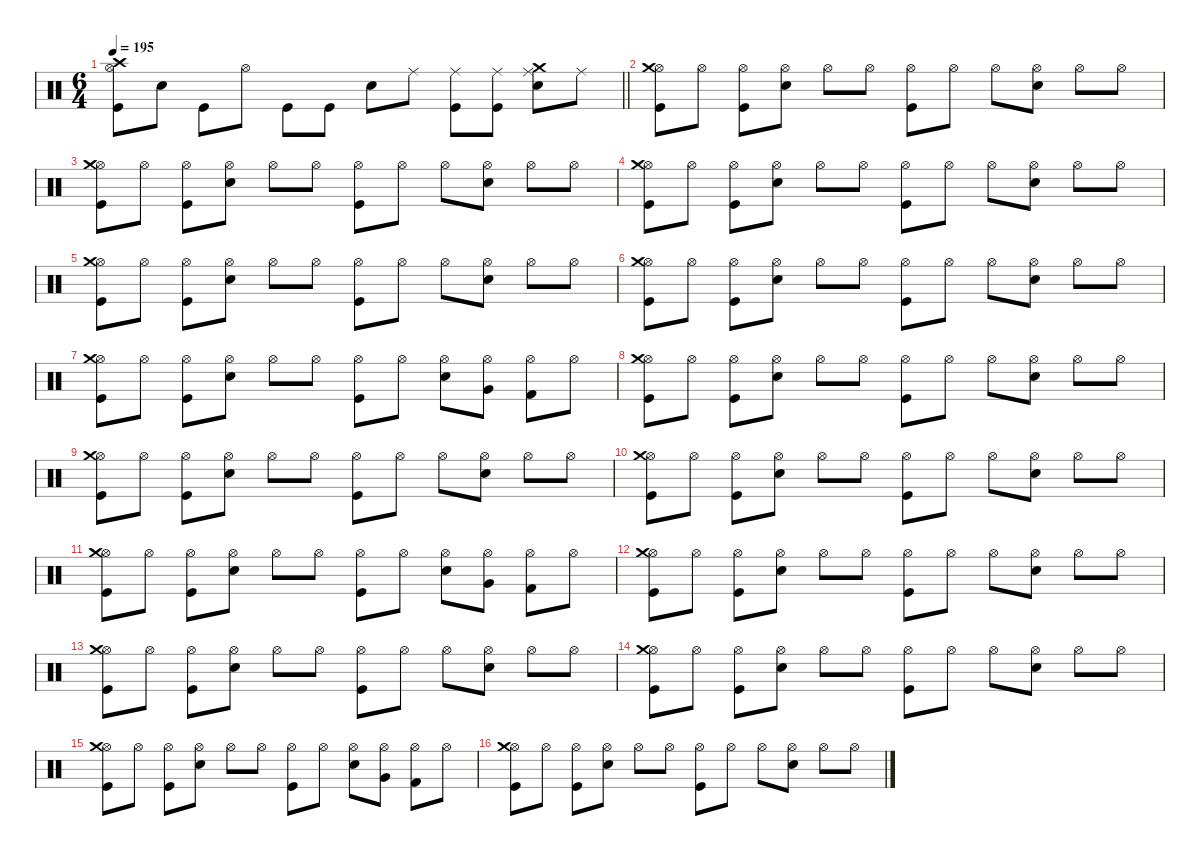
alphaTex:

\defaultSystemsLayout 4
\hideDynamics
\bracketExtendMode nobrackets
\singleTrackTrackNamePolicy hidden
\multiTrackTrackNamePolicy hidden
\firstSystemTrackNameMode fullname
\firstSystemTrackNameOrientation horizontal
\otherSystemsTrackNameOrientation horizontal
\track ("Percussion" "drm.") {defaultSystemsLayout 4 instrument percussion}
\staff {score}
\articulation defaults
\ts (6 4)
\tempo 195
\clef neutral
\barLineRight lightlight
\ks c
("Crash high (hit)" "Hi-Hat (open)" "Kick (hit)").8{dy f beam Down} "Snare (hit) 2".8{beam Down} "Kick (hit)".8{beam Down} "Hi-Hat (open)".8{beam Down} "Kick (hit)".8{beam Down} "Kick (hit)".8{beam Down} "Snare (hit) 2".8{beam Down} "Ride (middle)".8{beam Down} ("Ride (middle)" "Kick (hit)").8{beam Down} ("Ride (middle)" "Kick (hit)").8{beam Down} ("Crash medium (hit)" "Ride (middle)" "Snare (hit) 2").8{beam Down} "Ride (middle)".8{beam Down} |
("Hi-Hat (open)" "Crash medium (hit)" "Kick (hit)").8{beam Down} "Hi-Hat (open)".8{beam Down} ("Hi-Hat (open)" "Kick (hit)").8{beam Down} ("Hi-Hat (open)" "Snare (hit) 2").8{beam Down} "Hi-Hat (open)".8{beam Down} "Hi-Hat (open)".8{beam Down} ("Hi-Hat (open)" "Kick (hit)").8{beam Down} "Hi-Hat (open)".8{beam Down} "Hi-Hat (open)".8{beam Down} ("Hi-Hat (open)" "Snare (hit) 2").8{beam Down} "Hi-Hat (open)".8{beam Down} "Hi-Hat (open)".8{beam Down} |
("Hi-Hat (open)" "Crash medium (hit)" "Kick (hit)").8{beam Down} "Hi-Hat (open)".8{beam Down} ("Hi-Hat (open)" "Kick (hit)").8{beam Down} ("Hi-Hat (open)" "Snare (hit) 2").8{beam Down} "Hi-Hat (open)".8{beam Down} "Hi-Hat (open)".8{beam Down} ("Hi-Hat (open)" "Kick (hit)").8{beam Down} "Hi-Hat (open)".8{beam Down} "Hi-Hat (open)".8{beam Down} ("Hi-Hat (open)" "Snare (hit) 2").8{beam Down} "Hi-Hat (open)".8{beam Down} "Hi-Hat (open)".8{beam Down} |
("Hi-Hat (open)" "Crash medium (hit)" "Kick (hit)").8{beam Down} "Hi-Hat (open)".8{beam Down} ("Hi-Hat (open)" "Kick (hit)").8{beam Down} ("Hi-Hat (open)" "Snare (hit) 2").8{beam Down} "Hi-Hat (open)".8{beam Down} "Hi-Hat (open)".8{beam Down} ("Hi-Hat (open)" "Kick (hit)").8{beam Down} "Hi-Hat (open)".8{beam Down} "Hi-Hat (open)".8{beam Down} ("Hi-Hat (open)" "Snare (hit) 2").8{beam Down} "Hi-Hat (open)".8{beam Down} "Hi-Hat (open)".8{beam Down} |
("Hi-Hat (open)" "Crash medium (hit)" "Kick (hit)").8{beam Down} "Hi-Hat (open)".8{beam Down} ("Hi-Hat (open)" "Kick (hit)").8{beam Down} ("Hi-Hat (open)" "Snare (hit) 2").8{beam Down} "Hi-Hat (open)".8{beam Down} "Hi-Hat (open)".8{beam Down} ("Hi-Hat (open)" "Kick (hit)").8{beam Down} "Hi-Hat (open)".8{beam Down} "Hi-Hat (open)".8{beam Down} ("Hi-Hat (open)" "Snare (hit) 2").8{beam Down} "Hi-Hat (open)".8{beam Down} "Hi-Hat (open)".8{beam Down} |
("Hi-Hat (open)" "Crash medium (hit)" "Kick (hit)").8{beam Down} "Hi-Hat (open)".8{beam Down} ("Hi-Hat (open)" "Kick (hit)").8{beam Down} ("Hi-Hat (open)" "Snare (hit) 2").8{beam Down} "Hi-Hat (open)".8{beam Down} "Hi-Hat (open)".8{beam Down} ("Hi-Hat (open)" "Kick (hit)").8{beam Down} "Hi-Hat (open)".8{beam Down} "Hi-Hat (open)".8{beam Down} ("Hi-Hat (open)" "Snare (hit) 2").8{beam Down} "Hi-Hat (open)".8{beam Down} "Hi-Hat (open)".8{beam Down} |
("Hi-Hat (open)" "Crash medium (hit)" "Kick (hit)").8{beam Down} "Hi-Hat (open)".8{beam Down} ("Hi-Hat (open)" "Kick (hit)").8{beam Down} ("Hi-Hat (open)" "Snare (hit) 2").8{beam Down} "Hi-Hat (open)".8{beam Down} "Hi-Hat (open)".8{beam Down} ("Hi-Hat (open)" "Kick (hit)").8{beam Down} "Hi-Hat (open)".8{beam Down} ("Hi-Hat (open)" "Snare (hit) 2").8{beam Down} ("Hi-Hat (open)" "Very Low Tom (hit)").8{beam Down} ("Hi-Hat (open)" "Kick (hit) 2").8{beam Down} "Hi-Hat (open)".8{beam Down} |
("Hi-Hat (open)" "Crash medium (hit)" "Kick (hit)").8{beam Down} "Hi-Hat (open)".8{beam Down} ("Hi-Hat (open)" "Kick (hit)").8{beam Down} ("Hi-Hat (open)" "Snare (hit) 2").8{beam Down} "Hi-Hat (open)".8{beam Down} "Hi-Hat (open)".8{beam Down} ("Hi-Hat (open)" "Kick (hit)").8{beam Down} "Hi-Hat (open)".8{beam Down} "Hi-Hat (open)".8{beam Down} ("Hi-Hat (open)" "Snare (hit) 2").8{beam Down} "Hi-Hat (open)".8{beam Down} "Hi-Hat (open)".8{beam Down} |
("Hi-Hat (open)" "Crash medium (hit)" "Kick (hit)").8{beam Down} "Hi-Hat (open)".8{beam Down} ("Hi-Hat (open)" "Kick (hit)").8{beam Down} ("Hi-Hat (open)" "Snare (hit) 2").8{beam Down} "Hi-Hat (open)".8{beam Down} "Hi-Hat (open)".8{beam Down} ("Hi-Hat (open)" "Kick (hit)").8{beam Down} "Hi-Hat (open)".8{beam Down} "Hi-Hat (open)".8{beam Down} ("Hi-Hat (open)" "Snare (hit) 2").8{beam Down} "Hi-Hat (open)".8{beam Down} "Hi-Hat (open)".8{beam Down} |
("Hi-Hat (open)" "Crash medium (hit)" "Kick (hit)").8{beam Down} "Hi-Hat (open)".8{beam Down} ("Hi-Hat (open)" "Kick (hit)").8{beam Down} ("Hi-Hat (open)" "Snare (hit) 2").8{beam Down} "Hi-Hat (open)".8{beam Down} "Hi-Hat (open)".8{beam Down} ("Hi-Hat (open)" "Kick (hit)").8{beam Down} "Hi-Hat (open)".8{beam Down} "Hi-Hat (open)".8{beam Down} ("Hi-Hat (open)" "Snare (hit) 2").8{beam Down} "Hi-Hat (open)".8{beam Down} "Hi-Hat (open)".8{beam Down} |
("Hi-Hat (open)" "Crash medium (hit)" "Kick (hit)").8{beam Down} "Hi-Hat (open)".8{beam Down} ("Hi-Hat (open)" "Kick (hit)").8{beam Down} ("Hi-Hat (open)" "Snare (hit) 2").8{beam Down} "Hi-Hat (open)".8{beam Down} "Hi-Hat (open)".8{beam Down} ("Hi-Hat (open)" "Kick (hit)").8{beam Down} "Hi-Hat (open)".8{beam Down} ("Hi-Hat (open)" "Snare (hit) 2").8{beam Down} ("Hi-Hat (open)" "Very Low Tom (hit)").8{beam Down} ("Hi-Hat (open)" "Kick (hit) 2").8{beam Down} "Hi-Hat (open)".8{beam Down} |
("Hi-Hat (open)" "Crash medium (hit)" "Kick (hit)").8{beam Down} "Hi-Hat (open)".8{beam Down} ("Hi-Hat (open)" "Kick (hit)").8{beam Down} ("Hi-Hat (open)" "Snare (hit) 2").8{beam Down} "Hi-Hat (open)".8{beam Down} "Hi-Hat (open)".8{beam Down} ("Hi-Hat (open)" "Kick (hit)").8{beam Down} "Hi-Hat (open)".8{beam Down} "Hi-Hat (open)".8{beam Down} ("Hi-Hat (open)" "Snare (hit) 2").8{beam Down} "Hi-Hat (open)".8{beam Down} "Hi-Hat (open)".8{beam Down} |
("Hi-Hat (open)" "Crash medium (hit)" "Kick (hit)").8{beam Down} "Hi-Hat (open)".8{beam Down} ("Hi-Hat (open)" "Kick (hit)").8{beam Down} ("Hi-Hat (open)" "Snare (hit) 2").8{beam Down} "Hi-Hat (open)".8{beam Down} "Hi-Hat (open)".8{beam Down} ("Hi-Hat (open)" "Kick (hit)").8{beam Down} "Hi-Hat (open)".8{beam Down} "Hi-Hat (open)".8{beam Down} ("Hi-Hat (open)" "Snare (hit) 2").8{beam Down} "Hi-Hat (open)".8{beam Down} "Hi-Hat (open)".8{beam Down} |
("Hi-Hat (open)" "Crash medium (hit)" "Kick (hit)").8{beam Down} "Hi-Hat (open)".8{beam Down} ("Hi-Hat (open)" "Kick (hit)").8{beam Down} ("Hi-Hat (open)" "Snare (hit) 2").8{beam Down} "Hi-Hat (open)".8{beam Down} "Hi-Hat (open)".8{beam Down} ("Hi-Hat (open)" "Kick (hit)").8{beam Down} "Hi-Hat (open)".8{beam Down} "Hi-Hat (open)".8{beam Down} ("Hi-Hat (open)" "Snare (hit) 2").8{beam Down} "Hi-Hat (open)".8{beam Down} "Hi-Hat (open)".8{beam Down} |
("Hi-Hat (open)" "Crash medium (hit)" "Kick (hit)").8{beam Down} "Hi-Hat (open)".8{beam Down} ("Hi-Hat (open)" "Kick (hit)").8{beam Down} ("Hi-Hat (open)" "Snare (hit) 2").8{beam Down} "Hi-Hat (open)".8{beam Down} "Hi-Hat (open)".8{beam Down} ("Hi-Hat (open)" "Kick (hit)").8{beam Down} "Hi-Hat (open)".8{beam Down} ("Hi-Hat (open)" "Snare (hit) 2").8{beam Down} ("Hi-Hat (open)" "Very Low Tom (hit)").8{beam Down} ("Hi-Hat (open)" "Kick (hit) 2").8{beam Down} "Hi-Hat (open)".8{beam Down} |
("Hi-Hat (open)" "Crash medium (hit)" "Kick (hit)").8{beam Down} "Hi-Hat (open)".8{beam Down} ("Hi-Hat (open)" "Kick (hit)").8{beam Down} ("Hi-Hat (open)" "Snare (hit) 2").8{beam Down} "Hi-Hat (open)".8{beam Down} "Hi-Hat (open)".8{beam Down} ("Hi-Hat (open)" "Kick (hit)").8{beam Down} "Hi-Hat (open)".8{beam Down} "Hi-Hat (open)".8{beam Down} ("Hi-Hat (open)" "Snare (hit) 2").8{beam Down} "Hi-Hat (open)".8{beam Down} "Hi-Hat (open)".8{beam Down}
